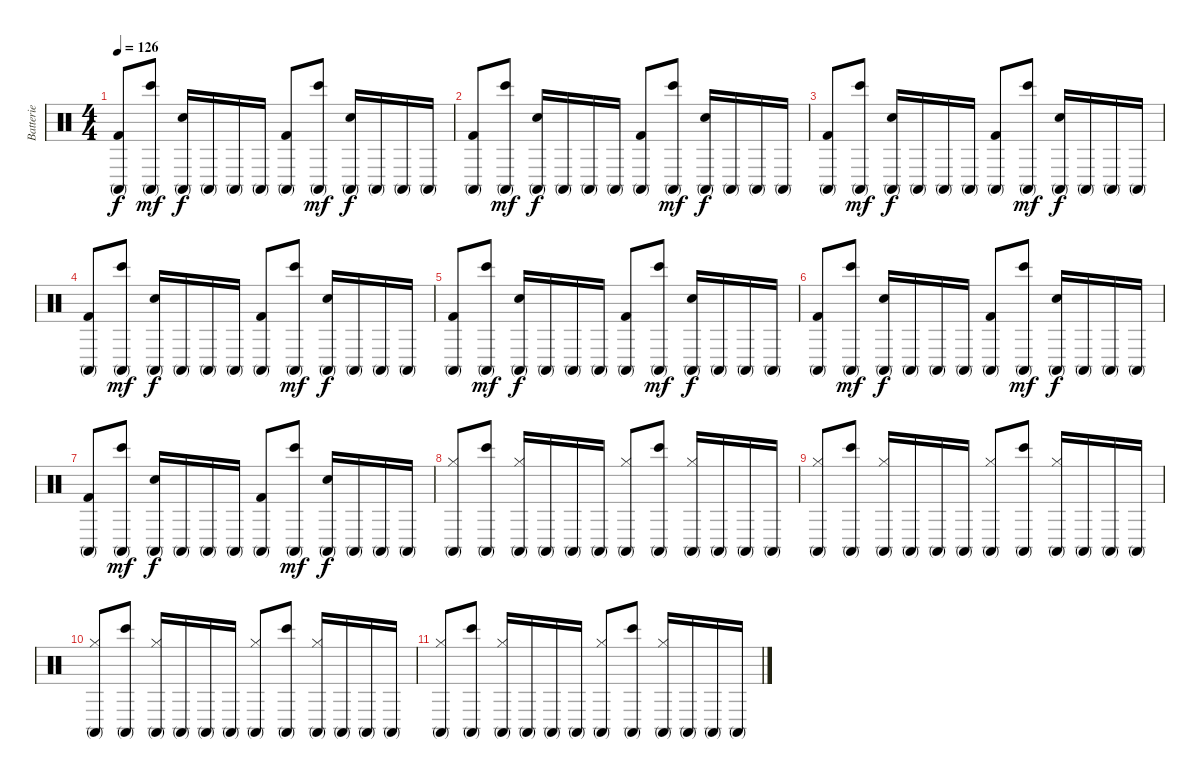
\track ("Batterie" "Batterie") {instrument percussion}
\staff {score}
\articulation defaults
\ts (4 4)
\tempo 126
\clef neutral
\ks c
("Conga high (mute)" "Kick (hit) 2").8{dy f} ("Conga high (mute)" "Bongo High (hit)").8{dy mf} ("Snare (hit) 2" "Conga high (mute)").16{dy f} "Conga high (mute)".16 "Conga high (mute)".16 "Conga high (mute)".16 ("Conga high (mute)" "Kick (hit) 2").8 ("Conga high (mute)" "Bongo High (hit)").8{dy mf} ("Snare (hit) 2" "Conga high (mute)").16{dy f} "Conga high (mute)".16 "Conga high (mute)".16 "Conga high (mute)".16 |
("Conga high (mute)" "Kick (hit) 2").8 ("Conga high (mute)" "Bongo High (hit)").8{dy mf} ("Snare (hit) 2" "Conga high (mute)").16{dy f} "Conga high (mute)".16 "Conga high (mute)".16 "Conga high (mute)".16 ("Conga high (mute)" "Kick (hit) 2").8 ("Conga high (mute)" "Bongo High (hit)").8{dy mf} ("Snare (hit) 2" "Conga high (mute)").16{dy f} "Conga high (mute)".16 "Conga high (mute)".16 "Conga high (mute)".16 |
("Conga high (mute)" "Kick (hit) 2").8 ("Conga high (mute)" "Bongo High (hit)").8{dy mf} ("Snare (hit) 2" "Conga high (mute)").16{dy f} "Conga high (mute)".16 "Conga high (mute)".16 "Conga high (mute)".16 ("Conga high (mute)" "Kick (hit) 2").8 ("Conga high (mute)" "Bongo High (hit)").8{dy mf} ("Snare (hit) 2" "Conga high (mute)").16{dy f} "Conga high (mute)".16 "Conga high (mute)".16 "Conga high (mute)".16 |
("Conga high (mute)" "Kick (hit) 2").8 ("Conga high (mute)" "Bongo High (hit)").8{dy mf} ("Snare (hit) 2" "Conga high (mute)").16{dy f} "Conga high (mute)".16 "Conga high (mute)".16 "Conga high (mute)".16 ("Conga high (mute)" "Kick (hit) 2").8 ("Conga high (mute)" "Bongo High (hit)").8{dy mf} ("Snare (hit) 2" "Conga high (mute)").16{dy f} "Conga high (mute)".16 "Conga high (mute)".16 "Conga high (mute)".16 |
("Conga high (mute)" "Kick (hit) 2").8 ("Conga high (mute)" "Bongo High (hit)").8{dy mf} ("Snare (hit) 2" "Conga high (mute)").16{dy f} "Conga high (mute)".16 "Conga high (mute)".16 "Conga high (mute)".16 ("Conga high (mute)" "Kick (hit) 2").8 ("Conga high (mute)" "Bongo High (hit)").8{dy mf} ("Snare (hit) 2" "Conga high (mute)").16{dy f} "Conga high (mute)".16 "Conga high (mute)".16 "Conga high (mute)".16 |
("Conga high (mute)" "Kick (hit) 2").8 ("Conga high (mute)" "Bongo High (hit)").8{dy mf} ("Snare (hit) 2" "Conga high (mute)").16{dy f} "Conga high (mute)".16 "Conga high (mute)".16 "Conga high (mute)".16 ("Conga high (mute)" "Kick (hit) 2").8 ("Conga high (mute)" "Bongo High (hit)").8{dy mf} ("Snare (hit) 2" "Conga high (mute)").16{dy f} "Conga high (mute)".16 "Conga high (mute)".16 "Conga high (mute)".16 |
("Conga high (mute)" "Kick (hit) 2").8 ("Conga high (mute)" "Bongo High (hit)").8{dy mf} ("Snare (hit) 2" "Conga high (mute)").16{dy f} "Conga high (mute)".16 "Conga high (mute)".16 "Conga high (mute)".16 ("Conga high (mute)" "Kick (hit) 2").8 ("Conga high (mute)" "Bongo High (hit)").8{dy mf} ("Snare (hit) 2" "Conga high (mute)").16{dy f} "Conga high (mute)".16 "Conga high (mute)".16 "Conga high (mute)".16 |
("Conga high (mute)" "Hi-Hat (closed)").8 ("Conga high (mute)" "Bongo High (hit)").8 ("Conga high (mute)" "Hi-Hat (closed)").16 "Conga high (mute)".16 "Conga high (mute)".16 "Conga high (mute)".16 ("Conga high (mute)" "Hi-Hat (closed)").8 ("Conga high (mute)" "Bongo High (hit)").8 ("Conga high (mute)" "Hi-Hat (closed)").16 "Conga high (mute)".16 "Conga high (mute)".16 "Conga high (mute)".16 |
("Conga high (mute)" "Hi-Hat (closed)").8 ("Conga high (mute)" "Bongo High (hit)").8 ("Conga high (mute)" "Hi-Hat (closed)").16 "Conga high (mute)".16 "Conga high (mute)".16 "Conga high (mute)".16 ("Conga high (mute)" "Hi-Hat (closed)").8 ("Conga high (mute)" "Bongo High (hit)").8 ("Conga high (mute)" "Hi-Hat (closed)").16 "Conga high (mute)".16 "Conga high (mute)".16 "Conga high (mute)".16 |
("Conga high (mute)" "Hi-Hat (closed)").8{volume 0} ("Conga high (mute)" "Bongo High (hit)").8 ("Conga high (mute)" "Hi-Hat (closed)").16 "Conga high (mute)".16 "Conga high (mute)".16 "Conga high (mute)".16 ("Conga high (mute)" "Hi-Hat (closed)").8 ("Conga high (mute)" "Bongo High (hit)").8 ("Conga high (mute)" "Hi-Hat (closed)").16 "Conga high (mute)".16 "Conga high (mute)".16 "Conga high (mute)".16 |
("Conga high (mute)" "Hi-Hat (closed)").8 ("Conga high (mute)" "Bongo High (hit)").8 ("Conga high (mute)" "Hi-Hat (closed)").16 "Conga high (mute)".16 "Conga high (mute)".16 "Conga high (mute)".16 ("Conga high (mute)" "Hi-Hat (closed)").8 ("Conga high (mute)" "Bongo High (hit)").8 ("Conga high (mute)" "Hi-Hat (closed)").16 "Conga high (mute)".16 "Conga high (mute)".16 "Conga high (mute)".16
